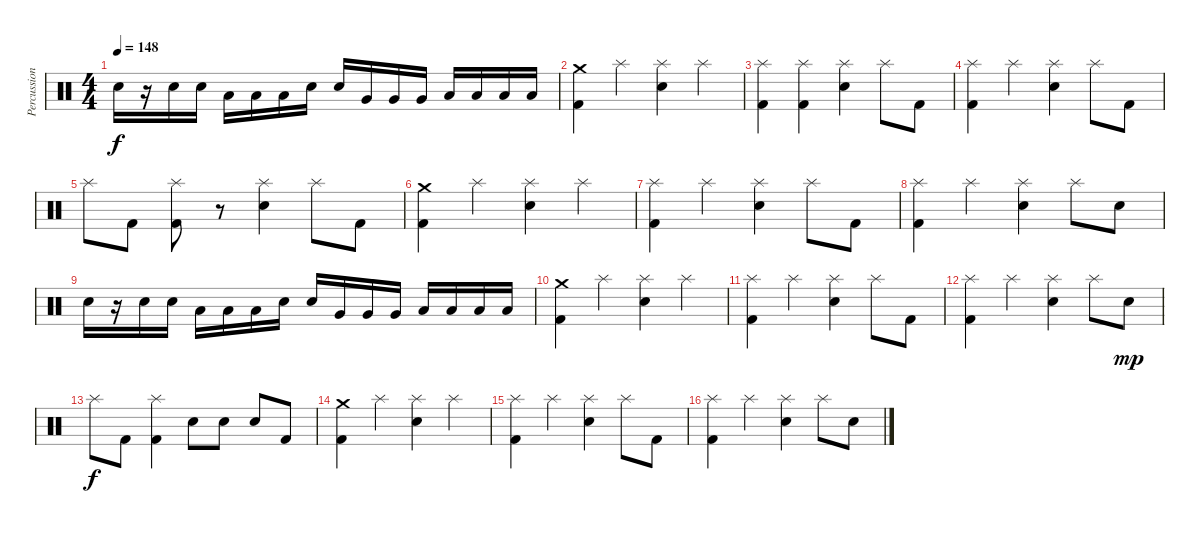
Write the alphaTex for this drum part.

\track ("Percussion" "Percussion") {instrument percussion}
\staff {score}
\articulation defaults
\ts (4 4)
\tempo 148
\clef neutral
\ks c "Electric Snare (hit)".16{dy f}
r.16 "Electric Snare (hit)".16 "Electric Snare (hit)".16 "Low Tom (hit)".16 "Low Tom (hit)".16 "Low Tom (hit)".16 "Electric Snare (hit)".16 "Electric Snare (hit)".16 "Very Low Tom (hit)".16 "Very Low Tom (hit)".16 "Very Low Tom (hit)".16 "Low Floor Tom (hit)".16 "Low Floor Tom (hit)".16 "Low Floor Tom (hit)".16 "Low Floor Tom (hit)".16 |
("Crash medium (hit)" "Kick (hit) 2").4 "Splash (hit)".4 ("Splash (hit)" "Electric Snare (hit)").4 "Splash (hit)".4 |
("Splash (hit)" "Kick (hit) 2").4 ("Splash (hit)" "Kick (hit) 2").4 ("Splash (hit)" "Electric Snare (hit)").4 "Splash (hit)".8 "Kick (hit) 2".8 |
("Splash (hit)" "Kick (hit) 2").4 "Splash (hit)".4 ("Splash (hit)" "Electric Snare (hit)").4 "Splash (hit)".8 "Kick (hit) 2".8 |
"Splash (hit)".8 "Kick (hit) 2".8 ("Splash (hit)" "Kick (hit) 2").8 r.8 ("Splash (hit)" "Electric Snare (hit)").4 "Splash (hit)".8 "Kick (hit) 2".8 |
("Crash medium (hit)" "Kick (hit) 2").4 "Splash (hit)".4 ("Splash (hit)" "Electric Snare (hit)").4 "Splash (hit)".4 |
("Splash (hit)" "Kick (hit) 2").4 "Splash (hit)".4 ("Splash (hit)" "Electric Snare (hit)").4 "Splash (hit)".8 "Kick (hit) 2".8 |
("Splash (hit)" "Kick (hit) 2").4 "Splash (hit)".4 ("Splash (hit)" "Electric Snare (hit)").4 "Splash (hit)".8 "Electric Snare (hit)".8 |
"Electric Snare (hit)".16 r.16 "Electric Snare (hit)".16 "Electric Snare (hit)".16 "Low Tom (hit)".16 "Low Tom (hit)".16 "Low Tom (hit)".16 "Electric Snare (hit)".16 "Electric Snare (hit)".16 "Very Low Tom (hit)".16 "Very Low Tom (hit)".16 "Very Low Tom (hit)".16 "Low Floor Tom (hit)".16 "Low Floor Tom (hit)".16 "Low Floor Tom (hit)".16 "Low Floor Tom (hit)".16 |
("Crash medium (hit)" "Kick (hit) 2").4 "Splash (hit)".4 ("Splash (hit)" "Electric Snare (hit)").4 "Splash (hit)".4 |
("Splash (hit)" "Kick (hit) 2").4 "Splash (hit)".4 ("Splash (hit)" "Electric Snare (hit)").4 "Splash (hit)".8 "Kick (hit) 2".8 |
("Splash (hit)" "Kick (hit) 2").4 "Splash (hit)".4 ("Splash (hit)" "Electric Snare (hit)").4 "Splash (hit)".8 "Electric Snare (hit)".8{dy mp} |
"Splash (hit)".8{dy f} "Kick (hit) 2".8 ("Splash (hit)" "Kick (hit) 2").4 "Electric Snare (hit)".8 "Electric Snare (hit)".8 "Electric Snare (hit)".8 "Kick (hit) 2".8 |
("Crash medium (hit)" "Kick (hit) 2").4 "Splash (hit)".4 ("Splash (hit)" "Electric Snare (hit)").4 "Splash (hit)".4 |
("Splash (hit)" "Kick (hit) 2").4 "Splash (hit)".4 ("Splash (hit)" "Electric Snare (hit)").4 "Splash (hit)".8 "Kick (hit) 2".8 |
("Splash (hit)" "Kick (hit) 2").4 "Splash (hit)".4 ("Splash (hit)" "Electric Snare (hit)").4 "Splash (hit)".8 "Electric Snare (hit)".8
